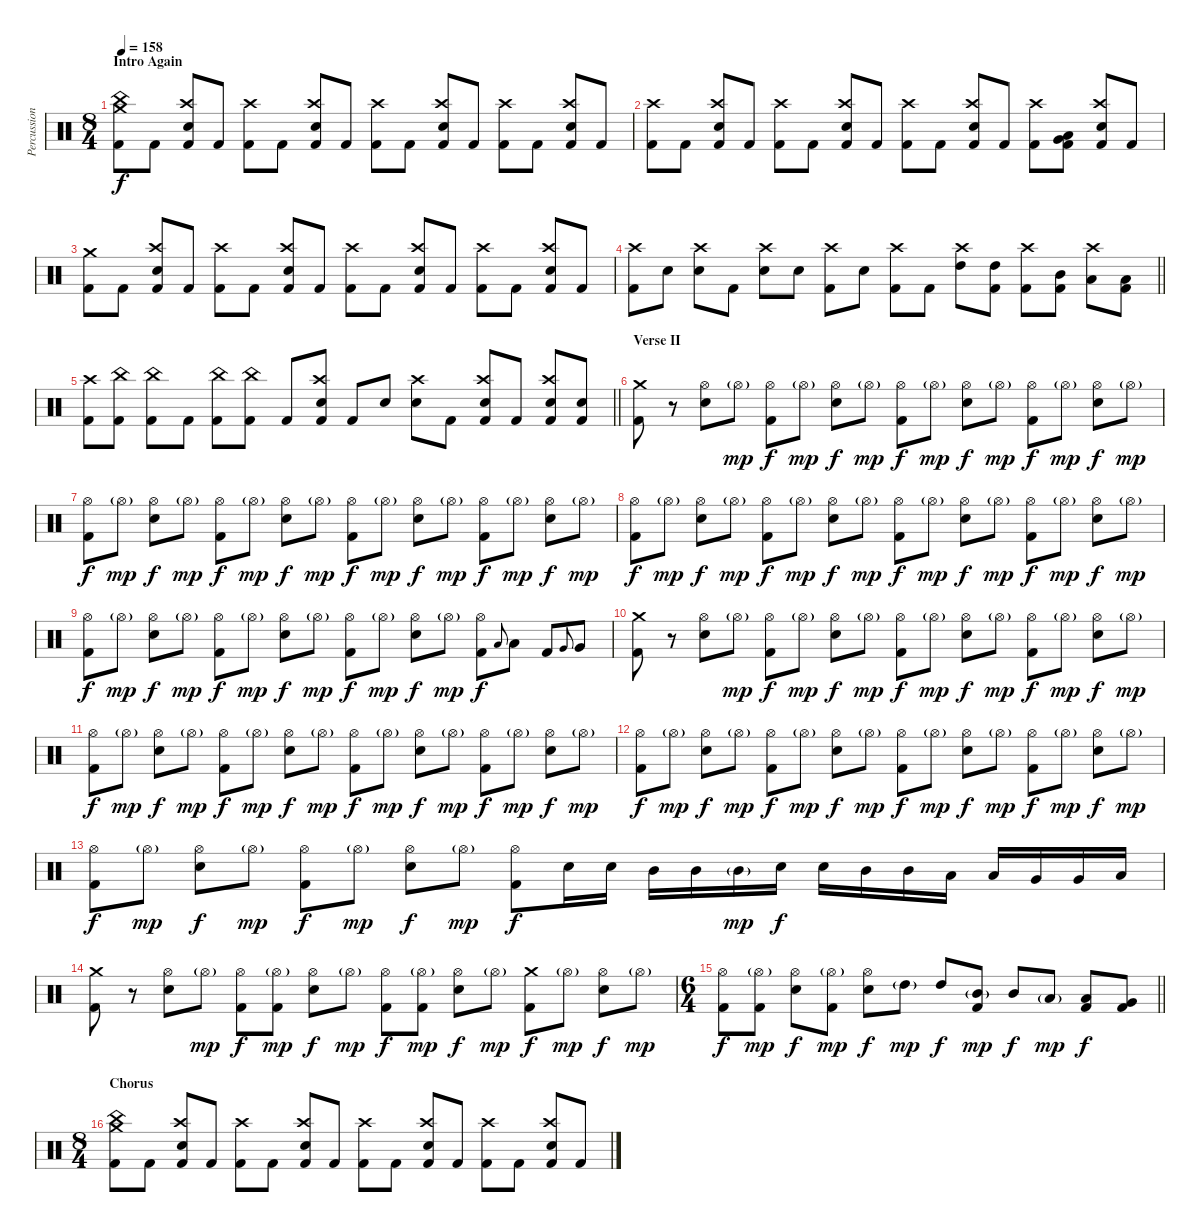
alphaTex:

\track ("Percussion" "Percussion") {instrument percussion}
\staff {score}
\articulation defaults
\ts (8 4)
\section ("" "Intro Again")
\tempo 158
\clef neutral
\ks c
("Crash medium (hit)" "China (hit)" "Kick (hit) 2").8{dy f} "Kick (hit) 2".8 ("Crash high (hit)" "Electric Snare (hit)" "Kick (hit) 2").8 "Kick (hit) 2".8 ("Crash high (hit)" "Kick (hit) 2").8 "Kick (hit) 2".8 ("Crash high (hit)" "Electric Snare (hit)" "Kick (hit) 2").8 "Kick (hit) 2".8 ("Crash high (hit)" "Kick (hit) 2").8 "Kick (hit) 2".8 ("Crash high (hit)" "Electric Snare (hit)" "Kick (hit) 2").8 "Kick (hit) 2".8 ("Crash high (hit)" "Kick (hit) 2").8 "Kick (hit) 2".8 ("Crash high (hit)" "Electric Snare (hit)" "Kick (hit) 2").8 "Kick (hit) 2".8 |
("Crash high (hit)" "Kick (hit) 2").8 "Kick (hit) 2".8 ("Crash high (hit)" "Electric Snare (hit)" "Kick (hit) 2").8 "Kick (hit) 2".8 ("Crash high (hit)" "Kick (hit) 2").8 "Kick (hit) 2".8 ("Crash high (hit)" "Electric Snare (hit)" "Kick (hit) 2").8 "Kick (hit) 2".8 ("Crash high (hit)" "Kick (hit) 2").8 "Kick (hit) 2".8 ("Crash high (hit)" "Electric Snare (hit)" "Kick (hit) 2").8 "Kick (hit) 2".8 ("Crash high (hit)" "Kick (hit) 2").8 ("Low Tom (hit)" "Very Low Tom (hit)" "Kick (hit) 2").8 ("Crash high (hit)" "Electric Snare (hit)" "Kick (hit) 2").8 "Kick (hit) 2".8 |
("Crash medium (hit)" "Kick (hit) 2").8 "Kick (hit) 2".8 ("Crash high (hit)" "Electric Snare (hit)" "Kick (hit) 2").8 "Kick (hit) 2".8 ("Crash high (hit)" "Kick (hit) 2").8 "Kick (hit) 2".8 ("Crash high (hit)" "Electric Snare (hit)" "Kick (hit) 2").8 "Kick (hit) 2".8 ("Crash high (hit)" "Kick (hit) 2").8 "Kick (hit) 2".8 ("Crash high (hit)" "Electric Snare (hit)" "Kick (hit) 2").8 "Kick (hit) 2".8 ("Crash high (hit)" "Kick (hit) 2").8 "Kick (hit) 2".8 ("Crash high (hit)" "Electric Snare (hit)" "Kick (hit) 2").8 "Kick (hit) 2".8 |
\barLineRight lightlight
("Crash high (hit)" "Kick (hit) 2").8 "Electric Snare (hit)".8 ("Crash high (hit)" "Electric Snare (hit)").8 "Kick (hit) 2".8 ("Crash high (hit)" "Electric Snare (hit)").8 "Electric Snare (hit)".8 ("Crash high (hit)" "Kick (hit) 2").8 "Electric Snare (hit)".8 ("Crash high (hit)" "Kick (hit) 2").8 "Kick (hit) 2".8 ("Crash high (hit)" "High Tom (hit)").8 ("High Tom (hit)" "Kick (hit) 2").8 ("Crash high (hit)" "Kick (hit) 2").8 ("Mid Tom (hit)" "Kick (hit) 2").8 ("Crash high (hit)" "Low Tom (hit)").8 ("Low Tom (hit)" "Kick (hit) 2").8 |
\barLineRight lightlight
("Crash high (hit)" "Kick (hit) 2").8 ("China (hit)" "Kick (hit) 2").8 ("China (hit)" "Kick (hit) 2").8 "Kick (hit) 2".8 ("China (hit)" "Kick (hit) 2").8 ("China (hit)" "Kick (hit) 2").8 "Kick (hit) 2".8 ("Crash high (hit)" "Electric Snare (hit)" "Kick (hit) 2").8 "Kick (hit) 2".8 "Electric Snare (hit)".8 ("Crash high (hit)" "Electric Snare (hit)").8 "Kick (hit) 2".8 ("Crash high (hit)" "Electric Snare (hit)" "Kick (hit) 2").8 "Kick (hit) 2".8 ("Crash high (hit)" "Electric Snare (hit)" "Kick (hit) 2").8 ("Electric Snare (hit)" "Kick (hit) 2").8 |
\section ("" "Verse II")
("Crash medium (hit)" "Kick (hit) 2").8 r.8 ("Hi-Hat (open)" "Electric Snare (hit)").8 "Hi-Hat (open)"{g}.8{dy mp} ("Hi-Hat (open)" "Kick (hit) 2").8{dy f} "Hi-Hat (open)"{g}.8{dy mp} ("Hi-Hat (open)" "Electric Snare (hit)").8{dy f} "Hi-Hat (open)"{g}.8{dy mp} ("Hi-Hat (open)" "Kick (hit) 2").8{dy f} "Hi-Hat (open)"{g}.8{dy mp} ("Hi-Hat (open)" "Electric Snare (hit)").8{dy f} "Hi-Hat (open)"{g}.8{dy mp} ("Hi-Hat (open)" "Kick (hit) 2").8{dy f} "Hi-Hat (open)"{g}.8{dy mp} ("Hi-Hat (open)" "Electric Snare (hit)").8{dy f} "Hi-Hat (open)"{g}.8{dy mp} |
("Hi-Hat (open)" "Kick (hit) 2").8{dy f} "Hi-Hat (open)"{g}.8{dy mp} ("Hi-Hat (open)" "Electric Snare (hit)").8{dy f} "Hi-Hat (open)"{g}.8{dy mp} ("Hi-Hat (open)" "Kick (hit) 2").8{dy f} "Hi-Hat (open)"{g}.8{dy mp} ("Hi-Hat (open)" "Electric Snare (hit)").8{dy f} "Hi-Hat (open)"{g}.8{dy mp} ("Hi-Hat (open)" "Kick (hit) 2").8{dy f} "Hi-Hat (open)"{g}.8{dy mp} ("Hi-Hat (open)" "Electric Snare (hit)").8{dy f} "Hi-Hat (open)"{g}.8{dy mp} ("Hi-Hat (open)" "Kick (hit) 2").8{dy f} "Hi-Hat (open)"{g}.8{dy mp} ("Hi-Hat (open)" "Electric Snare (hit)").8{dy f} "Hi-Hat (open)"{g}.8{dy mp} |
("Hi-Hat (open)" "Kick (hit) 2").8{dy f} "Hi-Hat (open)"{g}.8{dy mp} ("Hi-Hat (open)" "Electric Snare (hit)").8{dy f} "Hi-Hat (open)"{g}.8{dy mp} ("Hi-Hat (open)" "Kick (hit) 2").8{dy f} "Hi-Hat (open)"{g}.8{dy mp} ("Hi-Hat (open)" "Electric Snare (hit)").8{dy f} "Hi-Hat (open)"{g}.8{dy mp} ("Hi-Hat (open)" "Kick (hit) 2").8{dy f} "Hi-Hat (open)"{g}.8{dy mp} ("Hi-Hat (open)" "Electric Snare (hit)").8{dy f} "Hi-Hat (open)"{g}.8{dy mp} ("Hi-Hat (open)" "Kick (hit) 2").8{dy f} "Hi-Hat (open)"{g}.8{dy mp} ("Hi-Hat (open)" "Electric Snare (hit)").8{dy f} "Hi-Hat (open)"{g}.8{dy mp} |
("Hi-Hat (open)" "Kick (hit) 2").8{dy f} "Hi-Hat (open)"{g}.8{dy mp} ("Hi-Hat (open)" "Electric Snare (hit)").8{dy f} "Hi-Hat (open)"{g}.8{dy mp} ("Hi-Hat (open)" "Kick (hit) 2").8{dy f} "Hi-Hat (open)"{g}.8{dy mp} ("Hi-Hat (open)" "Electric Snare (hit)").8{dy f} "Hi-Hat (open)"{g}.8{dy mp} ("Hi-Hat (open)" "Kick (hit) 2").8{dy f} "Hi-Hat (open)"{g}.8{dy mp} ("Hi-Hat (open)" "Electric Snare (hit)").8{dy f} "Hi-Hat (open)"{g}.8{dy mp} ("Hi-Hat (open)" "Kick (hit) 2").8{dy f} "Low Tom (hit)".8{gr onbeat} "Low Tom (hit)".8 "Kick (hit) 2".8 "Very Low Tom (hit)".8{gr onbeat} "Very Low Tom (hit)".8 |
("Crash medium (hit)" "Kick (hit) 2").8 r.8 ("Hi-Hat (open)" "Electric Snare (hit)").8 "Hi-Hat (open)"{g}.8{dy mp} ("Hi-Hat (open)" "Kick (hit) 2").8{dy f} "Hi-Hat (open)"{g}.8{dy mp} ("Hi-Hat (open)" "Electric Snare (hit)").8{dy f} "Hi-Hat (open)"{g}.8{dy mp} ("Hi-Hat (open)" "Kick (hit) 2").8{dy f} "Hi-Hat (open)"{g}.8{dy mp} ("Hi-Hat (open)" "Electric Snare (hit)").8{dy f} "Hi-Hat (open)"{g}.8{dy mp} ("Hi-Hat (open)" "Kick (hit) 2").8{dy f} "Hi-Hat (open)"{g}.8{dy mp} ("Hi-Hat (open)" "Electric Snare (hit)").8{dy f} "Hi-Hat (open)"{g}.8{dy mp} |
("Hi-Hat (open)" "Kick (hit) 2").8{dy f} "Hi-Hat (open)"{g}.8{dy mp} ("Hi-Hat (open)" "Electric Snare (hit)").8{dy f} "Hi-Hat (open)"{g}.8{dy mp} ("Hi-Hat (open)" "Kick (hit) 2").8{dy f} "Hi-Hat (open)"{g}.8{dy mp} ("Hi-Hat (open)" "Electric Snare (hit)").8{dy f} "Hi-Hat (open)"{g}.8{dy mp} ("Hi-Hat (open)" "Kick (hit) 2").8{dy f} "Hi-Hat (open)"{g}.8{dy mp} ("Hi-Hat (open)" "Electric Snare (hit)").8{dy f} "Hi-Hat (open)"{g}.8{dy mp} ("Hi-Hat (open)" "Kick (hit) 2").8{dy f} "Hi-Hat (open)"{g}.8{dy mp} ("Hi-Hat (open)" "Electric Snare (hit)").8{dy f} "Hi-Hat (open)"{g}.8{dy mp} |
("Hi-Hat (open)" "Kick (hit) 2").8{dy f} "Hi-Hat (open)"{g}.8{dy mp} ("Hi-Hat (open)" "Electric Snare (hit)").8{dy f} "Hi-Hat (open)"{g}.8{dy mp} ("Hi-Hat (open)" "Kick (hit) 2").8{dy f} "Hi-Hat (open)"{g}.8{dy mp} ("Hi-Hat (open)" "Electric Snare (hit)").8{dy f} "Hi-Hat (open)"{g}.8{dy mp} ("Hi-Hat (open)" "Kick (hit) 2").8{dy f} "Hi-Hat (open)"{g}.8{dy mp} ("Hi-Hat (open)" "Electric Snare (hit)").8{dy f} "Hi-Hat (open)"{g}.8{dy mp} ("Hi-Hat (open)" "Kick (hit) 2").8{dy f} "Hi-Hat (open)"{g}.8{dy mp} ("Hi-Hat (open)" "Electric Snare (hit)").8{dy f} "Hi-Hat (open)"{g}.8{dy mp} |
("Hi-Hat (open)" "Kick (hit) 2").8{dy f} "Hi-Hat (open)"{g}.8{dy mp} ("Hi-Hat (open)" "Electric Snare (hit)").8{dy f} "Hi-Hat (open)"{g}.8{dy mp} ("Hi-Hat (open)" "Kick (hit) 2").8{dy f} "Hi-Hat (open)"{g}.8{dy mp} ("Hi-Hat (open)" "Electric Snare (hit)").8{dy f} "Hi-Hat (open)"{g}.8{dy mp} ("Hi-Hat (open)" "Kick (hit) 2").8{dy f} "Electric Snare (hit)".16 "Electric Snare (hit)".16 "Mid Tom (hit)".16 "Mid Tom (hit)".16 "Mid Tom (hit)"{g}.16{dy mp} "Electric Snare (hit)".16{dy f} "Electric Snare (hit)".16 "Mid Tom (hit)".16 "Mid Tom (hit)".16 "Low Tom (hit)".16 "Low Tom (hit)".16 "Very Low Tom (hit)".16 "Very Low Tom (hit)".16 "Low Floor Tom (hit)".16 |
("Crash medium (hit)" "Kick (hit) 2").8 r.8 ("Hi-Hat (open)" "Electric Snare (hit)").8 "Hi-Hat (open)"{g}.8{dy mp} ("Hi-Hat (open)" "Kick (hit) 2").8{dy f} ("Hi-Hat (open)"{g} "Kick (hit) 2").8{dy mp} ("Hi-Hat (open)" "Electric Snare (hit)").8{dy f} "Hi-Hat (open)"{g}.8{dy mp} ("Hi-Hat (open)" "Kick (hit) 2").8{dy f} ("Hi-Hat (open)"{g} "Kick (hit) 2").8{dy mp} ("Hi-Hat (open)" "Electric Snare (hit)").8{dy f} "Hi-Hat (open)"{g}.8{dy mp} ("Crash medium (hit)" "Kick (hit) 2").8{dy f} "Hi-Hat (open)"{g}.8{dy mp} ("Hi-Hat (open)" "Electric Snare (hit)").8{dy f} "Hi-Hat (open)"{g}.8{dy mp} |
\ts (6 4)
\barLineRight lightlight
("Hi-Hat (open)" "Kick (hit) 2").8{dy f} ("Hi-Hat (open)"{g} "Kick (hit) 2").8{dy mp} ("Hi-Hat (open)" "Electric Snare (hit)").8{dy f} ("Hi-Hat (open)"{g} "Kick (hit) 2").8{dy mp} ("Hi-Hat (open)" "Electric Snare (hit)").8{dy f} "High Tom (hit)"{g}.8{dy mp} "High Tom (hit)".8{dy f} ("Mid Tom (hit)"{g} "Kick (hit) 2").8{dy mp} "Mid Tom (hit)".8{dy f} "Low Tom (hit)"{g}.8{dy mp} ("Low Tom (hit)" "Kick (hit) 2").8{dy f} ("Very Low Tom (hit)" "Kick (hit) 2").8 |
\ts (8 4)
\section ("" "Chorus")
("Crash medium (hit)" "China (hit)" "Kick (hit) 2").8 "Kick (hit) 2".8 ("Crash high (hit)" "Electric Snare (hit)" "Kick (hit) 2").8 "Kick (hit) 2".8 ("Crash high (hit)" "Kick (hit) 2").8 "Kick (hit) 2".8 ("Crash high (hit)" "Electric Snare (hit)" "Kick (hit) 2").8 "Kick (hit) 2".8 ("Crash high (hit)" "Kick (hit) 2").8 "Kick (hit) 2".8 ("Crash high (hit)" "Electric Snare (hit)" "Kick (hit) 2").8 "Kick (hit) 2".8 ("Crash high (hit)" "Kick (hit) 2").8 "Kick (hit) 2".8 ("Crash high (hit)" "Electric Snare (hit)" "Kick (hit) 2").8 "Kick (hit) 2".8
